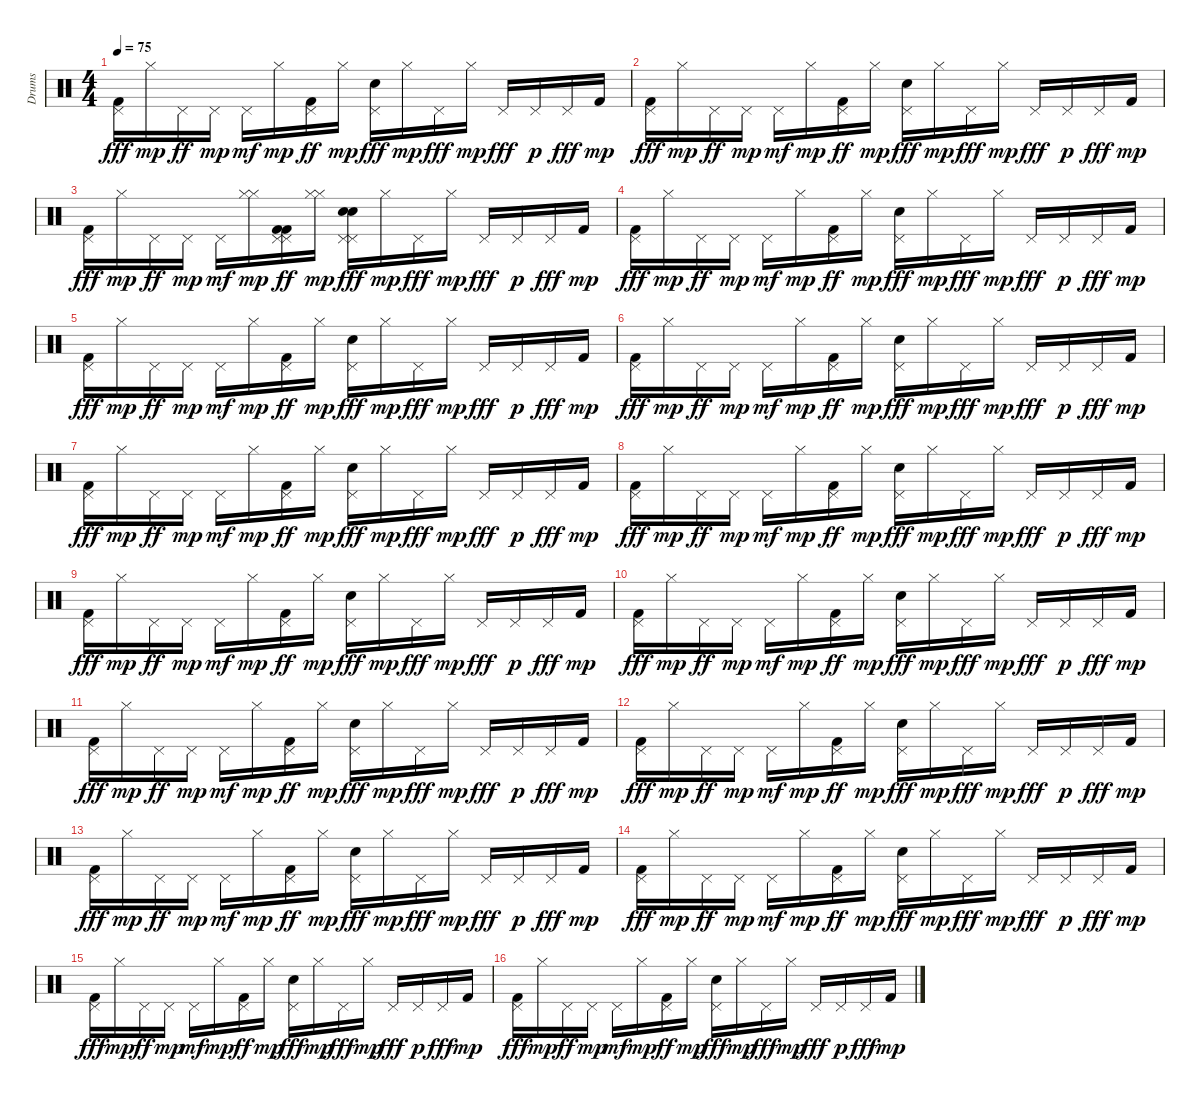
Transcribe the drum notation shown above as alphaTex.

\track ("Drums" "Drums") {instrument percussion}
\staff {score}
\articulation defaults
\ts (4 4)
\tempo 75
\clef neutral
\ks c
("Kick (hit) 2" "Pedal Hi-Hat (hit)").16{dy fff} "Hi-Hat (closed)".16{dy mp} "Pedal Hi-Hat (hit)".16{dy ff} "Pedal Hi-Hat (hit)".16{dy mp} "Pedal Hi-Hat (hit)".16{dy mf} "Hi-Hat (closed)".16{dy mp} ("Kick (hit) 2" "Pedal Hi-Hat (hit)").16{dy ff} "Hi-Hat (closed)".16{dy mp} ("Snare (hit) 2" "Pedal Hi-Hat (hit)").16{dy fff} "Hi-Hat (closed)".16{dy mp} "Pedal Hi-Hat (hit)".16{dy fff} "Hi-Hat (closed)".16{dy mp} "Pedal Hi-Hat (hit)".16{dy fff} "Pedal Hi-Hat (hit)".16{dy p} "Pedal Hi-Hat (hit)".16{dy fff} "Kick (hit) 2".16{dy mp} |
("Kick (hit) 2" "Pedal Hi-Hat (hit)").16{dy fff} "Hi-Hat (closed)".16{dy mp} "Pedal Hi-Hat (hit)".16{dy ff} "Pedal Hi-Hat (hit)".16{dy mp} "Pedal Hi-Hat (hit)".16{dy mf} "Hi-Hat (closed)".16{dy mp} ("Kick (hit) 2" "Pedal Hi-Hat (hit)").16{dy ff} "Hi-Hat (closed)".16{dy mp} ("Snare (hit) 2" "Pedal Hi-Hat (hit)").16{dy fff} "Hi-Hat (closed)".16{dy mp} "Pedal Hi-Hat (hit)".16{dy fff} "Hi-Hat (closed)".16{dy mp} "Pedal Hi-Hat (hit)".16{dy fff} "Pedal Hi-Hat (hit)".16{dy p} "Pedal Hi-Hat (hit)".16{dy fff} "Kick (hit) 2".16{dy mp} |
("Kick (hit) 2" "Pedal Hi-Hat (hit)").16{dy fff} "Hi-Hat (closed)".16{dy mp} "Pedal Hi-Hat (hit)".16{dy ff} "Pedal Hi-Hat (hit)".16{dy mp} "Pedal Hi-Hat (hit)".16{dy mf} ("Hi-Hat (closed)" "Hi-Hat (closed)").16{dy mp} ("Kick (hit) 2" "Kick (hit) 2" "Pedal Hi-Hat (hit)" "Pedal Hi-Hat (hit)").16{dy ff} ("Hi-Hat (closed)" "Hi-Hat (closed)").16{dy mp} ("Snare (hit) 2" "Snare (hit) 2" "Pedal Hi-Hat (hit)" "Pedal Hi-Hat (hit)").16{dy fff} "Hi-Hat (closed)".16{dy mp} "Pedal Hi-Hat (hit)".16{dy fff} "Hi-Hat (closed)".16{dy mp} "Pedal Hi-Hat (hit)".16{dy fff} "Pedal Hi-Hat (hit)".16{dy p} "Pedal Hi-Hat (hit)".16{dy fff} "Kick (hit) 2".16{dy mp} |
("Kick (hit) 2" "Pedal Hi-Hat (hit)").16{dy fff} "Hi-Hat (closed)".16{dy mp} "Pedal Hi-Hat (hit)".16{dy ff} "Pedal Hi-Hat (hit)".16{dy mp} "Pedal Hi-Hat (hit)".16{dy mf} "Hi-Hat (closed)".16{dy mp} ("Kick (hit) 2" "Pedal Hi-Hat (hit)").16{dy ff} "Hi-Hat (closed)".16{dy mp} ("Snare (hit) 2" "Pedal Hi-Hat (hit)").16{dy fff} "Hi-Hat (closed)".16{dy mp} "Pedal Hi-Hat (hit)".16{dy fff} "Hi-Hat (closed)".16{dy mp} "Pedal Hi-Hat (hit)".16{dy fff} "Pedal Hi-Hat (hit)".16{dy p} "Pedal Hi-Hat (hit)".16{dy fff} "Kick (hit) 2".16{dy mp} |
("Kick (hit) 2" "Pedal Hi-Hat (hit)").16{dy fff} "Hi-Hat (closed)".16{dy mp} "Pedal Hi-Hat (hit)".16{dy ff} "Pedal Hi-Hat (hit)".16{dy mp} "Pedal Hi-Hat (hit)".16{dy mf} "Hi-Hat (closed)".16{dy mp} ("Kick (hit) 2" "Pedal Hi-Hat (hit)").16{dy ff} "Hi-Hat (closed)".16{dy mp} ("Snare (hit) 2" "Pedal Hi-Hat (hit)").16{dy fff} "Hi-Hat (closed)".16{dy mp} "Pedal Hi-Hat (hit)".16{dy fff} "Hi-Hat (closed)".16{dy mp} "Pedal Hi-Hat (hit)".16{dy fff} "Pedal Hi-Hat (hit)".16{dy p} "Pedal Hi-Hat (hit)".16{dy fff} "Kick (hit) 2".16{dy mp} |
("Kick (hit) 2" "Pedal Hi-Hat (hit)").16{dy fff} "Hi-Hat (closed)".16{dy mp} "Pedal Hi-Hat (hit)".16{dy ff} "Pedal Hi-Hat (hit)".16{dy mp} "Pedal Hi-Hat (hit)".16{dy mf} "Hi-Hat (closed)".16{dy mp} ("Kick (hit) 2" "Pedal Hi-Hat (hit)").16{dy ff} "Hi-Hat (closed)".16{dy mp} ("Snare (hit) 2" "Pedal Hi-Hat (hit)").16{dy fff} "Hi-Hat (closed)".16{dy mp} "Pedal Hi-Hat (hit)".16{dy fff} "Hi-Hat (closed)".16{dy mp} "Pedal Hi-Hat (hit)".16{dy fff} "Pedal Hi-Hat (hit)".16{dy p} "Pedal Hi-Hat (hit)".16{dy fff} "Kick (hit) 2".16{dy mp} |
("Kick (hit) 2" "Pedal Hi-Hat (hit)").16{dy fff} "Hi-Hat (closed)".16{dy mp} "Pedal Hi-Hat (hit)".16{dy ff} "Pedal Hi-Hat (hit)".16{dy mp} "Pedal Hi-Hat (hit)".16{dy mf} "Hi-Hat (closed)".16{dy mp} ("Kick (hit) 2" "Pedal Hi-Hat (hit)").16{dy ff} "Hi-Hat (closed)".16{dy mp} ("Snare (hit) 2" "Pedal Hi-Hat (hit)").16{dy fff} "Hi-Hat (closed)".16{dy mp} "Pedal Hi-Hat (hit)".16{dy fff} "Hi-Hat (closed)".16{dy mp} "Pedal Hi-Hat (hit)".16{dy fff} "Pedal Hi-Hat (hit)".16{dy p} "Pedal Hi-Hat (hit)".16{dy fff} "Kick (hit) 2".16{dy mp} |
("Kick (hit) 2" "Pedal Hi-Hat (hit)").16{dy fff} "Hi-Hat (closed)".16{dy mp} "Pedal Hi-Hat (hit)".16{dy ff} "Pedal Hi-Hat (hit)".16{dy mp} "Pedal Hi-Hat (hit)".16{dy mf} "Hi-Hat (closed)".16{dy mp} ("Kick (hit) 2" "Pedal Hi-Hat (hit)").16{dy ff} "Hi-Hat (closed)".16{dy mp} ("Snare (hit) 2" "Pedal Hi-Hat (hit)").16{dy fff} "Hi-Hat (closed)".16{dy mp} "Pedal Hi-Hat (hit)".16{dy fff} "Hi-Hat (closed)".16{dy mp} "Pedal Hi-Hat (hit)".16{dy fff} "Pedal Hi-Hat (hit)".16{dy p} "Pedal Hi-Hat (hit)".16{dy fff} "Kick (hit) 2".16{dy mp} |
("Kick (hit) 2" "Pedal Hi-Hat (hit)").16{dy fff} "Hi-Hat (closed)".16{dy mp} "Pedal Hi-Hat (hit)".16{dy ff} "Pedal Hi-Hat (hit)".16{dy mp} "Pedal Hi-Hat (hit)".16{dy mf} "Hi-Hat (closed)".16{dy mp} ("Kick (hit) 2" "Pedal Hi-Hat (hit)").16{dy ff} "Hi-Hat (closed)".16{dy mp} ("Snare (hit) 2" "Pedal Hi-Hat (hit)").16{dy fff} "Hi-Hat (closed)".16{dy mp} "Pedal Hi-Hat (hit)".16{dy fff} "Hi-Hat (closed)".16{dy mp} "Pedal Hi-Hat (hit)".16{dy fff} "Pedal Hi-Hat (hit)".16{dy p} "Pedal Hi-Hat (hit)".16{dy fff} "Kick (hit) 2".16{dy mp} |
("Kick (hit) 2" "Pedal Hi-Hat (hit)").16{dy fff} "Hi-Hat (closed)".16{dy mp} "Pedal Hi-Hat (hit)".16{dy ff} "Pedal Hi-Hat (hit)".16{dy mp} "Pedal Hi-Hat (hit)".16{dy mf} "Hi-Hat (closed)".16{dy mp} ("Kick (hit) 2" "Pedal Hi-Hat (hit)").16{dy ff} "Hi-Hat (closed)".16{dy mp} ("Snare (hit) 2" "Pedal Hi-Hat (hit)").16{dy fff} "Hi-Hat (closed)".16{dy mp} "Pedal Hi-Hat (hit)".16{dy fff} "Hi-Hat (closed)".16{dy mp} "Pedal Hi-Hat (hit)".16{dy fff} "Pedal Hi-Hat (hit)".16{dy p} "Pedal Hi-Hat (hit)".16{dy fff} "Kick (hit) 2".16{dy mp} |
("Kick (hit) 2" "Pedal Hi-Hat (hit)").16{dy fff} "Hi-Hat (closed)".16{dy mp} "Pedal Hi-Hat (hit)".16{dy ff} "Pedal Hi-Hat (hit)".16{dy mp} "Pedal Hi-Hat (hit)".16{dy mf} "Hi-Hat (closed)".16{dy mp} ("Kick (hit) 2" "Pedal Hi-Hat (hit)").16{dy ff} "Hi-Hat (closed)".16{dy mp} ("Snare (hit) 2" "Pedal Hi-Hat (hit)").16{dy fff} "Hi-Hat (closed)".16{dy mp} "Pedal Hi-Hat (hit)".16{dy fff} "Hi-Hat (closed)".16{dy mp} "Pedal Hi-Hat (hit)".16{dy fff} "Pedal Hi-Hat (hit)".16{dy p} "Pedal Hi-Hat (hit)".16{dy fff} "Kick (hit) 2".16{dy mp} |
("Kick (hit) 2" "Pedal Hi-Hat (hit)").16{dy fff} "Hi-Hat (closed)".16{dy mp} "Pedal Hi-Hat (hit)".16{dy ff} "Pedal Hi-Hat (hit)".16{dy mp} "Pedal Hi-Hat (hit)".16{dy mf} "Hi-Hat (closed)".16{dy mp} ("Kick (hit) 2" "Pedal Hi-Hat (hit)").16{dy ff} "Hi-Hat (closed)".16{dy mp} ("Snare (hit) 2" "Pedal Hi-Hat (hit)").16{dy fff} "Hi-Hat (closed)".16{dy mp} "Pedal Hi-Hat (hit)".16{dy fff} "Hi-Hat (closed)".16{dy mp} "Pedal Hi-Hat (hit)".16{dy fff} "Pedal Hi-Hat (hit)".16{dy p} "Pedal Hi-Hat (hit)".16{dy fff} "Kick (hit) 2".16{dy mp} |
("Kick (hit) 2" "Pedal Hi-Hat (hit)").16{dy fff} "Hi-Hat (closed)".16{dy mp} "Pedal Hi-Hat (hit)".16{dy ff} "Pedal Hi-Hat (hit)".16{dy mp} "Pedal Hi-Hat (hit)".16{dy mf} "Hi-Hat (closed)".16{dy mp} ("Kick (hit) 2" "Pedal Hi-Hat (hit)").16{dy ff} "Hi-Hat (closed)".16{dy mp} ("Snare (hit) 2" "Pedal Hi-Hat (hit)").16{dy fff} "Hi-Hat (closed)".16{dy mp} "Pedal Hi-Hat (hit)".16{dy fff} "Hi-Hat (closed)".16{dy mp} "Pedal Hi-Hat (hit)".16{dy fff} "Pedal Hi-Hat (hit)".16{dy p} "Pedal Hi-Hat (hit)".16{dy fff} "Kick (hit) 2".16{dy mp} |
("Kick (hit) 2" "Pedal Hi-Hat (hit)").16{dy fff} "Hi-Hat (closed)".16{dy mp} "Pedal Hi-Hat (hit)".16{dy ff} "Pedal Hi-Hat (hit)".16{dy mp} "Pedal Hi-Hat (hit)".16{dy mf} "Hi-Hat (closed)".16{dy mp} ("Kick (hit) 2" "Pedal Hi-Hat (hit)").16{dy ff} "Hi-Hat (closed)".16{dy mp} ("Snare (hit) 2" "Pedal Hi-Hat (hit)").16{dy fff} "Hi-Hat (closed)".16{dy mp} "Pedal Hi-Hat (hit)".16{dy fff} "Hi-Hat (closed)".16{dy mp} "Pedal Hi-Hat (hit)".16{dy fff} "Pedal Hi-Hat (hit)".16{dy p} "Pedal Hi-Hat (hit)".16{dy fff} "Kick (hit) 2".16{dy mp} |
("Kick (hit) 2" "Pedal Hi-Hat (hit)").16{dy fff} "Hi-Hat (closed)".16{dy mp} "Pedal Hi-Hat (hit)".16{dy ff} "Pedal Hi-Hat (hit)".16{dy mp} "Pedal Hi-Hat (hit)".16{dy mf} "Hi-Hat (closed)".16{dy mp} ("Kick (hit) 2" "Pedal Hi-Hat (hit)").16{dy ff} "Hi-Hat (closed)".16{dy mp} ("Snare (hit) 2" "Pedal Hi-Hat (hit)").16{dy fff} "Hi-Hat (closed)".16{dy mp} "Pedal Hi-Hat (hit)".16{dy fff} "Hi-Hat (closed)".16{dy mp} "Pedal Hi-Hat (hit)".16{dy fff} "Pedal Hi-Hat (hit)".16{dy p} "Pedal Hi-Hat (hit)".16{dy fff} "Kick (hit) 2".16{dy mp} |
("Kick (hit) 2" "Pedal Hi-Hat (hit)").16{dy fff} "Hi-Hat (closed)".16{dy mp} "Pedal Hi-Hat (hit)".16{dy ff} "Pedal Hi-Hat (hit)".16{dy mp} "Pedal Hi-Hat (hit)".16{dy mf} "Hi-Hat (closed)".16{dy mp} ("Kick (hit) 2" "Pedal Hi-Hat (hit)").16{dy ff} "Hi-Hat (closed)".16{dy mp} ("Snare (hit) 2" "Pedal Hi-Hat (hit)").16{dy fff} "Hi-Hat (closed)".16{dy mp} "Pedal Hi-Hat (hit)".16{dy fff} "Hi-Hat (closed)".16{dy mp} "Pedal Hi-Hat (hit)".16{dy fff} "Pedal Hi-Hat (hit)".16{dy p} "Pedal Hi-Hat (hit)".16{dy fff} "Kick (hit) 2".16{dy mp}
